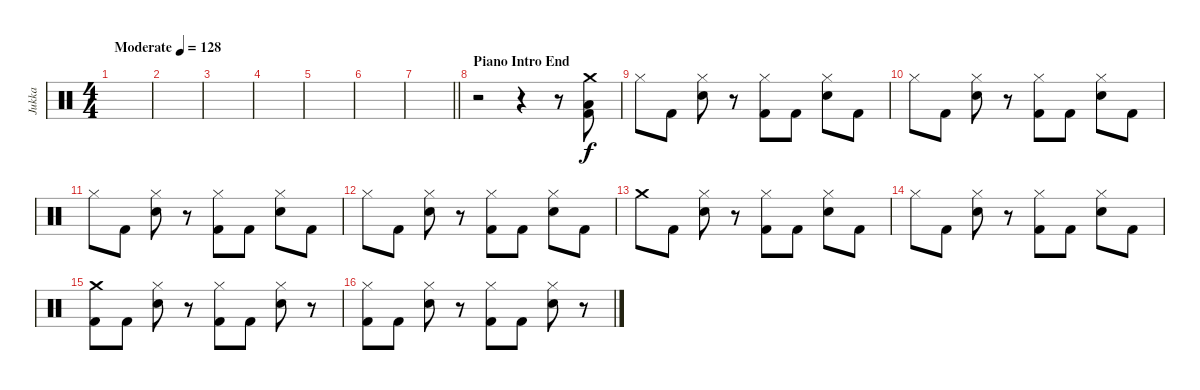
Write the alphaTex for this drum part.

\track ("Jukka" "Jukka") {instrument percussion}
\staff {score}
\articulation defaults
\ts (4 4)
\tempo (128 "Moderate")
\clef neutral
\ks c
|
|
|
|
|
|
\barLineRight lightlight
|
\section ("" "Piano Intro End")
r.2 r.4 r.8 ("Kick (hit) 2" "Low Floor Tom (hit)" "Crash medium (hit)").8 |
"Hi-Hat (closed)".8 "Kick (hit) 2".8 ("Electric Snare (hit)" "Hi-Hat (closed)").8 r.8 ("Kick (hit) 2" "Hi-Hat (closed)").8 "Kick (hit) 2".8 ("Electric Snare (hit)" "Hi-Hat (closed)").8 "Kick (hit) 2".8 |
"Hi-Hat (closed)".8 "Kick (hit) 2".8 ("Electric Snare (hit)" "Hi-Hat (closed)").8 r.8 ("Kick (hit) 2" "Hi-Hat (closed)").8 "Kick (hit) 2".8 ("Electric Snare (hit)" "Hi-Hat (closed)").8 "Kick (hit) 2".8 |
"Hi-Hat (closed)".8 "Kick (hit) 2".8 ("Electric Snare (hit)" "Hi-Hat (closed)").8 r.8 ("Kick (hit) 2" "Hi-Hat (closed)").8 "Kick (hit) 2".8 ("Electric Snare (hit)" "Hi-Hat (closed)").8 "Kick (hit) 2".8 |
"Hi-Hat (closed)".8 "Kick (hit) 2".8 ("Electric Snare (hit)" "Hi-Hat (closed)").8 r.8 ("Kick (hit) 2" "Hi-Hat (closed)").8 "Kick (hit) 2".8 ("Electric Snare (hit)" "Hi-Hat (closed)").8 "Kick (hit) 2".8 |
"Crash medium (hit)".8 "Kick (hit) 2".8 ("Electric Snare (hit)" "Hi-Hat (closed)").8 r.8 ("Kick (hit) 2" "Hi-Hat (closed)").8 "Kick (hit) 2".8 ("Electric Snare (hit)" "Hi-Hat (closed)").8 "Kick (hit) 2".8 |
"Hi-Hat (closed)".8 "Kick (hit) 2".8 ("Electric Snare (hit)" "Hi-Hat (closed)").8 r.8 ("Kick (hit) 2" "Hi-Hat (closed)").8 "Kick (hit) 2".8 ("Electric Snare (hit)" "Hi-Hat (closed)").8 "Kick (hit) 2".8 |
("Kick (hit) 2" "Crash medium (hit)").8 "Kick (hit) 2".8 ("Electric Snare (hit)" "Hi-Hat (closed)").8 r.8 ("Kick (hit) 2" "Hi-Hat (closed)").8 "Kick (hit) 2".8 ("Electric Snare (hit)" "Hi-Hat (closed)").8 r.8 |
("Kick (hit) 2" "Hi-Hat (closed)").8 "Kick (hit) 2".8 ("Electric Snare (hit)" "Hi-Hat (closed)").8 r.8 ("Kick (hit) 2" "Hi-Hat (closed)").8 "Kick (hit) 2".8 ("Electric Snare (hit)" "Hi-Hat (closed)").8 r.8
